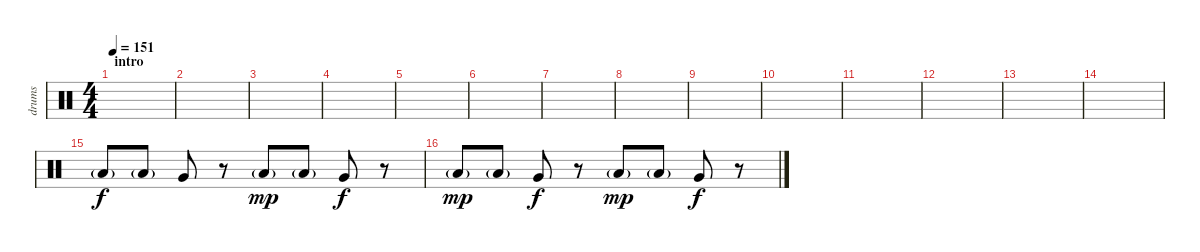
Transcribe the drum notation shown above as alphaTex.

\track ("drums" "drums") {instrument percussion}
\staff {score}
\articulation defaults
\ts (4 4)
\section ("" "intro")
\tempo 151
\clef neutral
\ks c
|
|
|
|
|
|
|
|
|
|
|
|
|
|
"Low Tom (hit)"{g}.8 "Low Tom (hit)"{g}.8 "Very Low Tom (hit)".8{dy f} r.8 "Low Tom (hit)"{g}.8{dy mp} "Low Tom (hit)"{g}.8 "Very Low Tom (hit)".8{dy f} r.8 |
"Low Tom (hit)"{g}.8{dy mp} "Low Tom (hit)"{g}.8 "Very Low Tom (hit)".8{dy f} r.8 "Low Tom (hit)"{g}.8{dy mp} "Low Tom (hit)"{g}.8 "Very Low Tom (hit)".8{dy f} r.8
